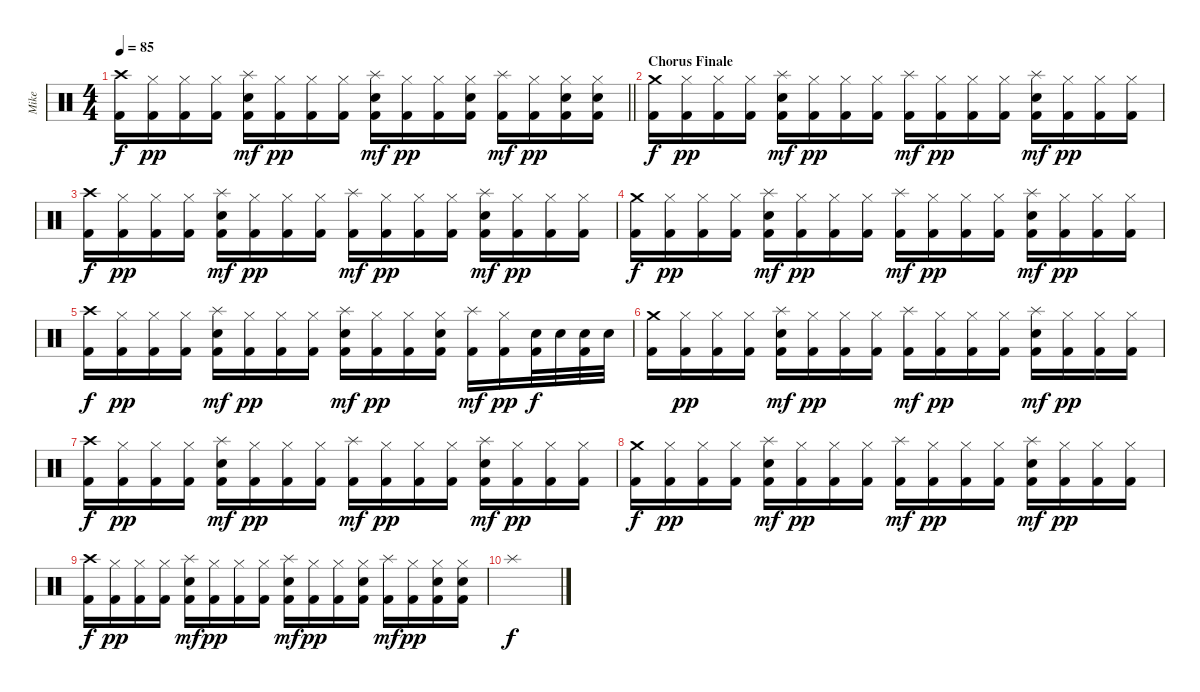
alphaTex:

\track ("Mike" "Mike") {instrument percussion}
\staff {score}
\articulation defaults
\ts (4 4)
\tempo 85
\clef neutral
\barLineRight lightlight
\ks c
("Crash high (hit)" "Kick (hit) 2").16{dy f} ("Hi-Hat (closed)" "Kick (hit) 2").16{dy pp} ("Hi-Hat (closed)" "Kick (hit) 2").16 ("Hi-Hat (closed)" "Kick (hit) 2").16 ("Splash (hit)" "Snare (hit) 2" "Kick (hit) 2").16{dy mf} ("Hi-Hat (closed)" "Kick (hit) 2").16{dy pp} ("Hi-Hat (closed)" "Kick (hit) 2").16 ("Hi-Hat (closed)" "Kick (hit) 2").16 ("Splash (hit)" "Snare (hit) 2" "Kick (hit) 2").16{dy mf} ("Hi-Hat (closed)" "Kick (hit) 2").16{dy pp} ("Hi-Hat (closed)" "Kick (hit) 2").16 ("Hi-Hat (closed)" "Snare (hit) 2" "Kick (hit) 2").16 ("Splash (hit)" "Kick (hit) 2").16{dy mf} ("Hi-Hat (closed)" "Kick (hit) 2").16{dy pp} ("Hi-Hat (closed)" "Snare (hit) 2" "Kick (hit) 2").16 ("Hi-Hat (closed)" "Snare (hit) 2" "Kick (hit) 2").16 |
\section ("" "Chorus Finale")
("Crash medium (hit)" "Kick (hit) 2").16{dy f} ("Hi-Hat (closed)" "Kick (hit) 2").16{dy pp} ("Hi-Hat (closed)" "Kick (hit) 2").16 ("Hi-Hat (closed)" "Kick (hit) 2").16 ("Splash (hit)" "Snare (hit) 2" "Kick (hit) 2").16{dy mf} ("Hi-Hat (closed)" "Kick (hit) 2").16{dy pp} ("Hi-Hat (closed)" "Kick (hit) 2").16 ("Hi-Hat (closed)" "Kick (hit) 2").16 ("Splash (hit)" "Kick (hit) 2").16{dy mf} ("Hi-Hat (closed)" "Kick (hit) 2").16{dy pp} ("Hi-Hat (closed)" "Kick (hit) 2").16 ("Hi-Hat (closed)" "Kick (hit) 2").16 ("Splash (hit)" "Snare (hit) 2" "Kick (hit) 2").16{dy mf} ("Hi-Hat (closed)" "Kick (hit) 2").16{dy pp} ("Hi-Hat (closed)" "Kick (hit) 2").16 ("Hi-Hat (closed)" "Kick (hit) 2").16 |
("Crash high (hit)" "Kick (hit) 2").16{dy f} ("Hi-Hat (closed)" "Kick (hit) 2").16{dy pp} ("Hi-Hat (closed)" "Kick (hit) 2").16 ("Hi-Hat (closed)" "Kick (hit) 2").16 ("Splash (hit)" "Snare (hit) 2" "Kick (hit) 2").16{dy mf} ("Hi-Hat (closed)" "Kick (hit) 2").16{dy pp} ("Hi-Hat (closed)" "Kick (hit) 2").16 ("Hi-Hat (closed)" "Kick (hit) 2").16 ("Splash (hit)" "Kick (hit) 2").16{dy mf} ("Hi-Hat (closed)" "Kick (hit) 2").16{dy pp} ("Hi-Hat (closed)" "Kick (hit) 2").16 ("Hi-Hat (closed)" "Kick (hit) 2").16 ("Splash (hit)" "Snare (hit) 2" "Kick (hit) 2").16{dy mf} ("Hi-Hat (closed)" "Kick (hit) 2").16{dy pp} ("Hi-Hat (closed)" "Kick (hit) 2").16 ("Hi-Hat (closed)" "Kick (hit) 2").16 |
("Crash medium (hit)" "Kick (hit) 2").16{dy f} ("Hi-Hat (closed)" "Kick (hit) 2").16{dy pp} ("Hi-Hat (closed)" "Kick (hit) 2").16 ("Hi-Hat (closed)" "Kick (hit) 2").16 ("Splash (hit)" "Snare (hit) 2" "Kick (hit) 2").16{dy mf} ("Hi-Hat (closed)" "Kick (hit) 2").16{dy pp} ("Hi-Hat (closed)" "Kick (hit) 2").16 ("Hi-Hat (closed)" "Kick (hit) 2").16 ("Splash (hit)" "Kick (hit) 2").16{dy mf} ("Hi-Hat (closed)" "Kick (hit) 2").16{dy pp} ("Hi-Hat (closed)" "Kick (hit) 2").16 ("Hi-Hat (closed)" "Kick (hit) 2").16 ("Splash (hit)" "Snare (hit) 2" "Kick (hit) 2").16{dy mf} ("Hi-Hat (closed)" "Kick (hit) 2").16{dy pp} ("Hi-Hat (closed)" "Kick (hit) 2").16 ("Hi-Hat (closed)" "Kick (hit) 2").16 |
("Crash high (hit)" "Kick (hit) 2").16{dy f} ("Hi-Hat (closed)" "Kick (hit) 2").16{dy pp} ("Hi-Hat (closed)" "Kick (hit) 2").16 ("Hi-Hat (closed)" "Kick (hit) 2").16 ("Splash (hit)" "Snare (hit) 2" "Kick (hit) 2").16{dy mf} ("Hi-Hat (closed)" "Kick (hit) 2").16{dy pp} ("Hi-Hat (closed)" "Kick (hit) 2").16 ("Hi-Hat (closed)" "Kick (hit) 2").16 ("Splash (hit)" "Snare (hit) 2" "Kick (hit) 2").16{dy mf} ("Hi-Hat (closed)" "Kick (hit) 2").16{dy pp} ("Hi-Hat (closed)" "Kick (hit) 2").16 ("Hi-Hat (closed)" "Snare (hit) 2" "Kick (hit) 2").16 ("Splash (hit)" "Kick (hit) 2").16{dy mf} ("Hi-Hat (closed)" "Kick (hit) 2").16{dy pp} ("Snare (hit) 2" "Kick (hit) 2").32{dy f} "Snare (hit) 2".32 ("Snare (hit) 2" "Kick (hit) 2").32 "Snare (hit) 2".32 |
("Crash medium (hit)" "Kick (hit) 2").16 ("Hi-Hat (closed)" "Kick (hit) 2").16{dy pp} ("Hi-Hat (closed)" "Kick (hit) 2").16 ("Hi-Hat (closed)" "Kick (hit) 2").16 ("Splash (hit)" "Snare (hit) 2" "Kick (hit) 2").16{dy mf} ("Hi-Hat (closed)" "Kick (hit) 2").16{dy pp} ("Hi-Hat (closed)" "Kick (hit) 2").16 ("Hi-Hat (closed)" "Kick (hit) 2").16 ("Splash (hit)" "Kick (hit) 2").16{dy mf} ("Hi-Hat (closed)" "Kick (hit) 2").16{dy pp} ("Hi-Hat (closed)" "Kick (hit) 2").16 ("Hi-Hat (closed)" "Kick (hit) 2").16 ("Splash (hit)" "Snare (hit) 2" "Kick (hit) 2").16{dy mf} ("Hi-Hat (closed)" "Kick (hit) 2").16{dy pp} ("Hi-Hat (closed)" "Kick (hit) 2").16 ("Hi-Hat (closed)" "Kick (hit) 2").16 |
("Crash high (hit)" "Kick (hit) 2").16{dy f} ("Hi-Hat (closed)" "Kick (hit) 2").16{dy pp} ("Hi-Hat (closed)" "Kick (hit) 2").16 ("Hi-Hat (closed)" "Kick (hit) 2").16 ("Splash (hit)" "Snare (hit) 2" "Kick (hit) 2").16{dy mf} ("Hi-Hat (closed)" "Kick (hit) 2").16{dy pp} ("Hi-Hat (closed)" "Kick (hit) 2").16 ("Hi-Hat (closed)" "Kick (hit) 2").16 ("Splash (hit)" "Kick (hit) 2").16{dy mf} ("Hi-Hat (closed)" "Kick (hit) 2").16{dy pp} ("Hi-Hat (closed)" "Kick (hit) 2").16 ("Hi-Hat (closed)" "Kick (hit) 2").16 ("Splash (hit)" "Snare (hit) 2" "Kick (hit) 2").16{dy mf} ("Hi-Hat (closed)" "Kick (hit) 2").16{dy pp} ("Hi-Hat (closed)" "Kick (hit) 2").16 ("Hi-Hat (closed)" "Kick (hit) 2").16 |
("Crash medium (hit)" "Kick (hit) 2").16{dy f} ("Hi-Hat (closed)" "Kick (hit) 2").16{dy pp} ("Hi-Hat (closed)" "Kick (hit) 2").16 ("Hi-Hat (closed)" "Kick (hit) 2").16 ("Splash (hit)" "Snare (hit) 2" "Kick (hit) 2").16{dy mf} ("Hi-Hat (closed)" "Kick (hit) 2").16{dy pp} ("Hi-Hat (closed)" "Kick (hit) 2").16 ("Hi-Hat (closed)" "Kick (hit) 2").16 ("Splash (hit)" "Kick (hit) 2").16{dy mf} ("Hi-Hat (closed)" "Kick (hit) 2").16{dy pp} ("Hi-Hat (closed)" "Kick (hit) 2").16 ("Hi-Hat (closed)" "Kick (hit) 2").16 ("Splash (hit)" "Snare (hit) 2" "Kick (hit) 2").16{dy mf} ("Hi-Hat (closed)" "Kick (hit) 2").16{dy pp} ("Hi-Hat (closed)" "Kick (hit) 2").16 ("Hi-Hat (closed)" "Kick (hit) 2").16 |
("Crash high (hit)" "Kick (hit) 2").16{dy f} ("Hi-Hat (closed)" "Kick (hit) 2").16{dy pp} ("Hi-Hat (closed)" "Kick (hit) 2").16 ("Hi-Hat (closed)" "Kick (hit) 2").16 ("Splash (hit)" "Snare (hit) 2" "Kick (hit) 2").16{dy mf} ("Hi-Hat (closed)" "Kick (hit) 2").16{dy pp} ("Hi-Hat (closed)" "Kick (hit) 2").16 ("Hi-Hat (closed)" "Kick (hit) 2").16 ("Splash (hit)" "Snare (hit) 2" "Kick (hit) 2").16{dy mf} ("Hi-Hat (closed)" "Kick (hit) 2").16{dy pp} ("Hi-Hat (closed)" "Kick (hit) 2").16 ("Hi-Hat (closed)" "Snare (hit) 2" "Kick (hit) 2").16 ("Splash (hit)" "Kick (hit) 2").16{dy mf} ("Hi-Hat (closed)" "Kick (hit) 2").16{dy pp} ("Hi-Hat (closed)" "Snare (hit) 2" "Kick (hit) 2").16 ("Hi-Hat (closed)" "Snare (hit) 2" "Kick (hit) 2").16 |
"Splash (hit)".1{dy f}
